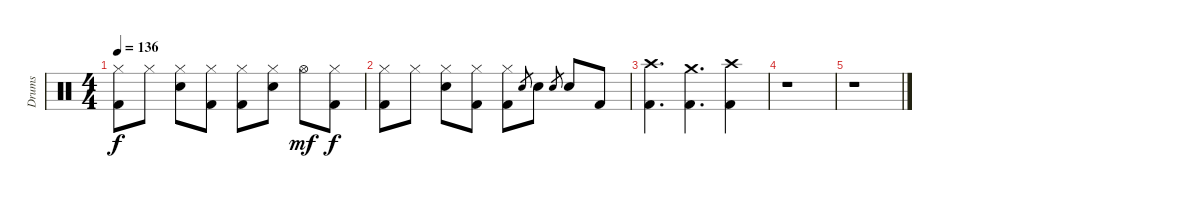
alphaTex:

\track ("Drums" "Drums") {instrument percussion}
\staff {score}
\articulation defaults
\ts (4 4)
\tempo 136
\clef neutral
\ks c
("Hi-Hat (closed)" "Kick (hit) 2").8{dy f} "Hi-Hat (closed)".8 ("Hi-Hat (closed)" "Electric Snare (hit)").8 ("Hi-Hat (closed)" "Kick (hit) 2").8 ("Hi-Hat (closed)" "Kick (hit) 2").8 ("Hi-Hat (closed)" "Electric Snare (hit)").8 "Hi-Hat (open)".8{dy mf} ("Hi-Hat (closed)" "Kick (hit) 2").8{dy f} |
("Hi-Hat (closed)" "Kick (hit) 2").8 "Hi-Hat (closed)".8 ("Hi-Hat (closed)" "Electric Snare (hit)").8 ("Hi-Hat (closed)" "Kick (hit) 2").8 ("Hi-Hat (closed)" "Kick (hit) 2").8 "Electric Snare (hit)".8{gr} "Electric Snare (hit)".8 "Electric Snare (hit)".8{gr} "Electric Snare (hit)".8 "Kick (hit) 2".8 |
("Crash high (hit)" "Kick (hit) 2").4{d} ("Crash medium (hit)" "Kick (hit) 2").4{d} ("Crash high (hit)" "Kick (hit) 2").4 |
r.1 |
r.1
